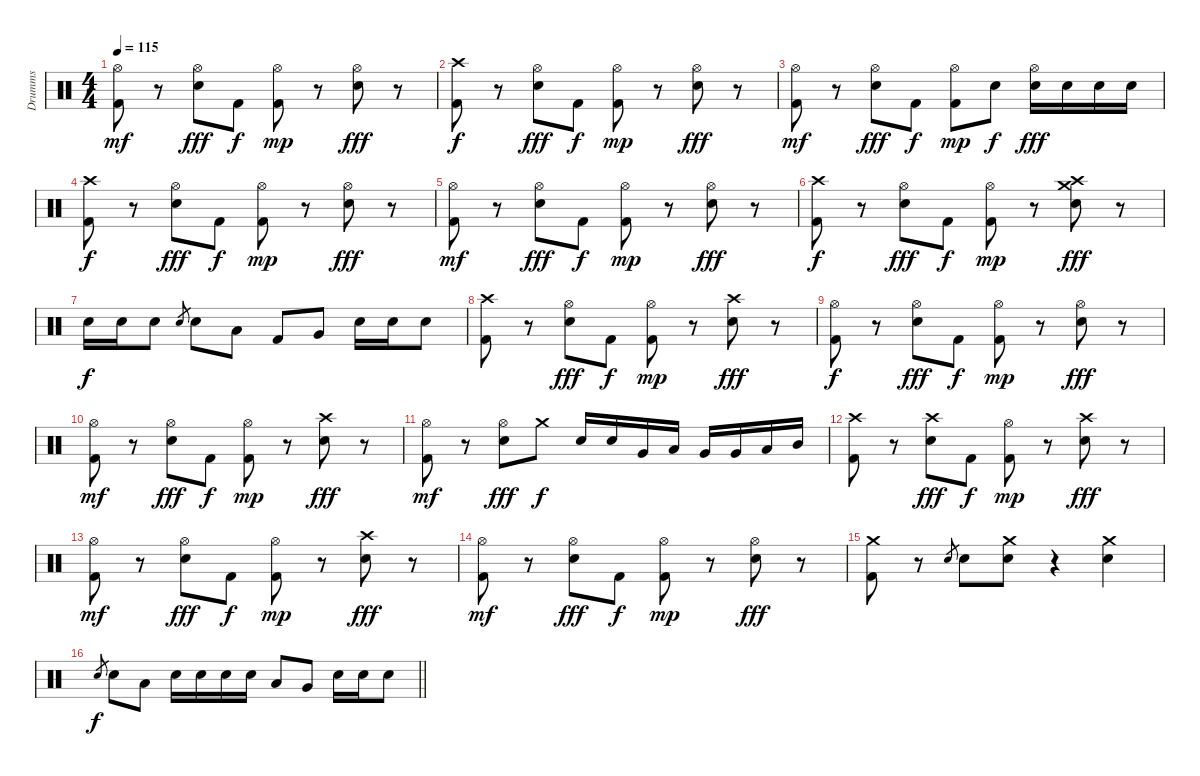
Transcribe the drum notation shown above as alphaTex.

\track ("Drumms" "Drumms") {instrument percussion}
\staff {score}
\articulation defaults
\ts (4 4)
\tempo 115
\clef neutral
\ks c
("Hi-Hat (open)" "Kick (hit) 2").8{dy mf} r.8 ("Hi-Hat (open)" "Snare (hit) 2").8{dy fff} "Kick (hit) 2".8{dy f} ("Hi-Hat (open)" "Kick (hit) 2").8{dy mp} r.8 ("Hi-Hat (open)" "Snare (hit) 2").8{dy fff} r.8 |
("Crash high (hit)" "Kick (hit) 2").8{dy f} r.8 ("Hi-Hat (open)" "Snare (hit) 2").8{dy fff} "Kick (hit) 2".8{dy f} ("Hi-Hat (open)" "Kick (hit) 2").8{dy mp} r.8 ("Hi-Hat (open)" "Snare (hit) 2").8{dy fff} r.8 |
("Hi-Hat (open)" "Kick (hit) 2").8{dy mf} r.8 ("Hi-Hat (open)" "Snare (hit) 2").8{dy fff} "Kick (hit) 2".8{dy f} ("Hi-Hat (open)" "Kick (hit) 2").8{dy mp} "Snare (hit) 2".8{dy f} ("Hi-Hat (open)" "Snare (hit) 2").16{dy fff} "Snare (hit) 2".16 "Snare (hit) 2".16 "Snare (hit) 2".16 |
("Crash high (hit)" "Kick (hit) 2").8{dy f} r.8 ("Hi-Hat (open)" "Snare (hit) 2").8{dy fff} "Kick (hit) 2".8{dy f} ("Hi-Hat (open)" "Kick (hit) 2").8{dy mp} r.8 ("Hi-Hat (open)" "Snare (hit) 2").8{dy fff} r.8 |
("Hi-Hat (open)" "Kick (hit) 2").8{dy mf} r.8 ("Hi-Hat (open)" "Snare (hit) 2").8{dy fff} "Kick (hit) 2".8{dy f} ("Hi-Hat (open)" "Kick (hit) 2").8{dy mp} r.8 ("Hi-Hat (open)" "Snare (hit) 2").8{dy fff} r.8 |
("Crash high (hit)" "Kick (hit) 2").8{dy f} r.8 ("Hi-Hat (open)" "Snare (hit) 2").8{dy fff} "Kick (hit) 2".8{dy f} ("Hi-Hat (open)" "Kick (hit) 2").8{dy mp} r.8 ("Crash high (hit)" "Snare (hit) 2" "Crash medium (hit)").8{dy fff} r.8 |
"Electric Snare (hit)".16{dy f} "Electric Snare (hit)".16 "Electric Snare (hit)".8 "Electric Snare (hit)".8{gr} "Electric Snare (hit)".8 "Low Tom (hit)".8 "Kick (hit) 2".8 "Very Low Tom (hit)".8 "Electric Snare (hit)".16 "Electric Snare (hit)".16 "Electric Snare (hit)".8 |
("Crash high (hit)" "Kick (hit) 2").8 r.8 ("Hi-Hat (open)" "Snare (hit) 2").8{dy fff} "Kick (hit) 2".8{dy f} ("Hi-Hat (open)" "Kick (hit) 2").8{dy mp} r.8 ("Crash high (hit)" "Snare (hit) 2").8{dy fff} r.8 |
("Hi-Hat (open)" "Kick (hit) 2").8{dy f} r.8 ("Hi-Hat (open)" "Snare (hit) 2").8{dy fff} "Kick (hit) 2".8{dy f} ("Hi-Hat (open)" "Kick (hit) 2").8{dy mp} r.8 ("Hi-Hat (open)" "Snare (hit) 2").8{dy fff} r.8 |
("Hi-Hat (open)" "Kick (hit) 2").8{dy mf} r.8 ("Hi-Hat (open)" "Snare (hit) 2").8{dy fff} "Kick (hit) 2".8{dy f} ("Hi-Hat (open)" "Kick (hit) 2").8{dy mp} r.8 ("Crash high (hit)" "Snare (hit) 2").8{dy fff} r.8 |
("Hi-Hat (open)" "Kick (hit) 2").8{dy mf} r.8 ("Hi-Hat (open)" "Snare (hit) 2").8{dy fff} "Crash medium (hit)".8{dy f} "Electric Snare (hit)".16 "Electric Snare (hit)".16 "Very Low Tom (hit)".16 "Low Tom (hit)".16 "Very Low Tom (hit)".16 "Very Low Tom (hit)".16 "Low Tom (hit)".16 "Mid Tom (hit)".16 |
("Crash high (hit)" "Kick (hit) 2").8 r.8 ("Crash high (hit)" "Snare (hit) 2").8{dy fff} "Kick (hit) 2".8{dy f} ("Hi-Hat (open)" "Kick (hit) 2").8{dy mp} r.8 ("Crash high (hit)" "Snare (hit) 2").8{dy fff} r.8 |
("Hi-Hat (open)" "Kick (hit) 2").8{dy mf} r.8 ("Hi-Hat (open)" "Snare (hit) 2").8{dy fff} "Kick (hit) 2".8{dy f} ("Hi-Hat (open)" "Kick (hit) 2").8{dy mp} r.8 ("Crash high (hit)" "Snare (hit) 2").8{dy fff} r.8 |
("Hi-Hat (open)" "Kick (hit) 2").8{dy mf} r.8 ("Hi-Hat (open)" "Snare (hit) 2").8{dy fff} "Kick (hit) 2".8{dy f} ("Hi-Hat (open)" "Kick (hit) 2").8{dy mp} r.8 ("Hi-Hat (open)" "Snare (hit) 2").8{dy fff} r.8 |
("Crash medium (hit)" "Kick (hit) 2").8 r.8 "Snare (hit) 2".8{gr} "Snare (hit) 2".8 ("Crash medium (hit)" "Snare (hit) 2").8 r.4 ("Crash medium (hit)" "Snare (hit) 2").4 |
\barLineRight lightlight "Electric Snare (hit)".8{gr dy f} "Electric Snare (hit)".8 "Low Tom (hit)".8 "Electric Snare (hit)".16 "Electric Snare (hit)".16 "Electric Snare (hit)".16 "Electric Snare (hit)".16 "Low Tom (hit)".8 "Very Low Tom (hit)".8 "Electric Snare (hit)".16 "Electric Snare (hit)".16 "Electric Snare (hit)".8
